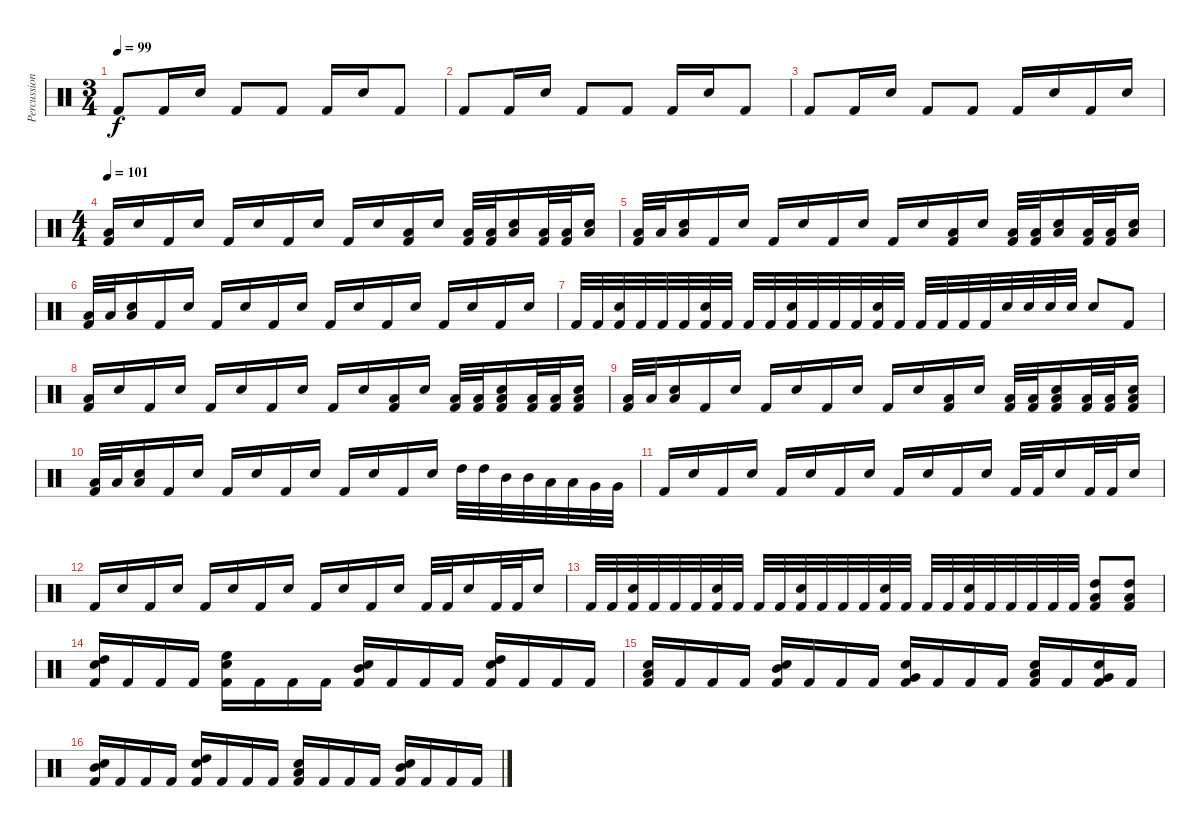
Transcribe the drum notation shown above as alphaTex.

\track ("Percussion" "Percussion") {instrument percussion}
\staff {score}
\articulation defaults
\ts (3 4)
\tempo 99
\clef neutral
\ks c "Kick (hit) 2".8{dy f} "Kick (hit) 2".16 "Snare (hit) 2".16 "Kick (hit) 2".8 "Kick (hit) 2".8 "Kick (hit) 2".16 "Snare (hit) 2".16 "Kick (hit) 2".8
|
"Kick (hit) 2".8 "Kick (hit) 2".16 "Snare (hit) 2".16 "Kick (hit) 2".8 "Kick (hit) 2".8 "Kick (hit) 2".16 "Snare (hit) 2".16 "Kick (hit) 2".8 |
"Kick (hit) 2".8 "Kick (hit) 2".16 "Snare (hit) 2".16 "Kick (hit) 2".8 "Kick (hit) 2".8 "Kick (hit) 2".16 "Snare (hit) 2".16 "Kick (hit) 2".16 "Snare (hit) 2".16 |
\ts (4 4)
\tempo 101
("Low Tom (hit)" "Kick (hit) 2").16 "Snare (hit) 2".16 "Kick (hit) 2".16 "Snare (hit) 2".16 "Kick (hit) 2".16 "Snare (hit) 2".16 "Kick (hit) 2".16 "Snare (hit) 2".16 "Kick (hit) 2".16 "Snare (hit) 2".16 ("Low Tom (hit)" "Kick (hit) 2").16 "Snare (hit) 2".16 ("Low Tom (hit)" "Kick (hit) 2").32 ("Low Tom (hit)" "Kick (hit) 2").32 ("Low Tom (hit)" "Snare (hit) 2").16 ("Low Tom (hit)" "Kick (hit) 2").32 ("Low Tom (hit)" "Kick (hit) 2").32 ("Low Tom (hit)" "Snare (hit) 2").16 |
("Low Tom (hit)" "Kick (hit) 2").32 "Low Tom (hit)".32 ("Low Tom (hit)" "Snare (hit) 2").16 "Kick (hit) 2".16 "Snare (hit) 2".16 "Kick (hit) 2".16 "Snare (hit) 2".16 "Kick (hit) 2".16 "Snare (hit) 2".16 "Kick (hit) 2".16 "Snare (hit) 2".16 ("Low Tom (hit)" "Kick (hit) 2").16 "Snare (hit) 2".16 ("Low Tom (hit)" "Kick (hit) 2").32 ("Low Tom (hit)" "Kick (hit) 2").32 ("Low Tom (hit)" "Snare (hit) 2").16 ("Low Tom (hit)" "Kick (hit) 2").32 ("Low Tom (hit)" "Kick (hit) 2").32 ("Low Tom (hit)" "Snare (hit) 2").16 |
("Low Tom (hit)" "Kick (hit) 2").32 "Low Tom (hit)".32 ("Low Tom (hit)" "Snare (hit) 2").16 "Kick (hit) 2".16 "Snare (hit) 2".16 "Kick (hit) 2".16 "Snare (hit) 2".16 "Kick (hit) 2".16 "Snare (hit) 2".16 "Kick (hit) 2".16 "Snare (hit) 2".16 "Kick (hit) 2".16 "Snare (hit) 2".16 "Kick (hit) 2".16 "Snare (hit) 2".16 "Kick (hit) 2".16 "Snare (hit) 2".16 |
"Kick (hit) 2".32 "Kick (hit) 2".32 ("Snare (hit) 2" "Kick (hit) 2").32 "Kick (hit) 2".32 "Kick (hit) 2".32 "Kick (hit) 2".32 ("Snare (hit) 2" "Kick (hit) 2").32 "Kick (hit) 2".32 "Kick (hit) 2".32 "Kick (hit) 2".32 ("Snare (hit) 2" "Kick (hit) 2").32 "Kick (hit) 2".32 "Kick (hit) 2".32 "Kick (hit) 2".32 ("Snare (hit) 2" "Kick (hit) 2").32 "Kick (hit) 2".32 "Kick (hit) 2".32 "Kick (hit) 2".32 "Kick (hit) 2".32 "Kick (hit) 2".32 "Snare (hit) 2".32 "Snare (hit) 2".32 "Snare (hit) 2".32 "Snare (hit) 2".32 "Snare (hit) 2".8 "Kick (hit) 2".8 |
("Low Tom (hit)" "Kick (hit) 2").16 "Snare (hit) 2".16 "Kick (hit) 2".16 "Snare (hit) 2".16 "Kick (hit) 2".16 "Snare (hit) 2".16 "Kick (hit) 2".16 "Snare (hit) 2".16 "Kick (hit) 2".16 "Snare (hit) 2".16 ("Low Tom (hit)" "Kick (hit) 2").16 "Snare (hit) 2".16 ("Low Tom (hit)" "Kick (hit) 2").32 ("Low Tom (hit)" "Kick (hit) 2").32 ("Low Tom (hit)" "Snare (hit) 2" "Kick (hit) 2").16 ("Low Tom (hit)" "Kick (hit) 2").32 ("Low Tom (hit)" "Kick (hit) 2").32 ("Low Tom (hit)" "Snare (hit) 2" "Kick (hit) 2").16 |
("Low Tom (hit)" "Kick (hit) 2").32 "Low Tom (hit)".32 ("Low Tom (hit)" "Snare (hit) 2").16 "Kick (hit) 2".16 "Snare (hit) 2".16 "Kick (hit) 2".16 "Snare (hit) 2".16 "Kick (hit) 2".16 "Snare (hit) 2".16 "Kick (hit) 2".16 "Snare (hit) 2".16 ("Low Tom (hit)" "Kick (hit) 2").16 "Snare (hit) 2".16 ("Low Tom (hit)" "Kick (hit) 2").32 ("Low Tom (hit)" "Kick (hit) 2").32 ("Low Tom (hit)" "Snare (hit) 2" "Kick (hit) 2").16 ("Low Tom (hit)" "Kick (hit) 2").32 ("Low Tom (hit)" "Kick (hit) 2").32 ("Low Tom (hit)" "Snare (hit) 2" "Kick (hit) 2").16 |
("Low Tom (hit)" "Kick (hit) 2").32 "Low Tom (hit)".32 ("Low Tom (hit)" "Snare (hit) 2").16 "Kick (hit) 2".16 "Snare (hit) 2".16 "Kick (hit) 2".16 "Snare (hit) 2".16 "Kick (hit) 2".16 "Snare (hit) 2".16 "Kick (hit) 2".16 "Snare (hit) 2".16 "Kick (hit) 2".16 "Snare (hit) 2".16 "High Tom (hit)".32 "High Tom (hit)".32 "Mid Tom (hit)".32 "Mid Tom (hit)".32 "Low Tom (hit)".32 "Low Tom (hit)".32 "Very Low Tom (hit)".32 "Very Low Tom (hit)".32 |
"Kick (hit) 2".16 "Snare (hit) 2".16 "Kick (hit) 2".16 "Snare (hit) 2".16 "Kick (hit) 2".16 "Snare (hit) 2".16 "Kick (hit) 2".16 "Snare (hit) 2".16 "Kick (hit) 2".16 "Snare (hit) 2".16 "Kick (hit) 2".16 "Snare (hit) 2".16 "Kick (hit) 2".32 "Kick (hit) 2".32 "Snare (hit) 2".16 "Kick (hit) 2".32 "Kick (hit) 2".32 "Snare (hit) 2".16 |
"Kick (hit) 2".16 "Snare (hit) 2".16 "Kick (hit) 2".16 "Snare (hit) 2".16 "Kick (hit) 2".16 "Snare (hit) 2".16 "Kick (hit) 2".16 "Snare (hit) 2".16 "Kick (hit) 2".16 "Snare (hit) 2".16 "Kick (hit) 2".16 "Snare (hit) 2".16 "Kick (hit) 2".32 "Kick (hit) 2".32 "Snare (hit) 2".16 "Kick (hit) 2".32 "Kick (hit) 2".32 "Snare (hit) 2".16 |
"Kick (hit) 2".32 "Kick (hit) 2".32 ("Snare (hit) 2" "Kick (hit) 2").32 "Kick (hit) 2".32 "Kick (hit) 2".32 "Kick (hit) 2".32 ("Snare (hit) 2" "Kick (hit) 2").32 "Kick (hit) 2".32 "Kick (hit) 2".32 "Kick (hit) 2".32 ("Snare (hit) 2" "Kick (hit) 2").32 "Kick (hit) 2".32 "Kick (hit) 2".32 "Kick (hit) 2".32 ("Snare (hit) 2" "Kick (hit) 2").32 "Kick (hit) 2".32 "Kick (hit) 2".32 "Kick (hit) 2".32 ("Snare (hit) 2" "Kick (hit) 2").32 "Kick (hit) 2".32 "Kick (hit) 2".32 "Kick (hit) 2".32 "Kick (hit) 2".32 "Kick (hit) 2".32 ("Low Tom (hit)" "High Tom (hit)" "Kick (hit) 2").8 ("Low Tom (hit)" "High Tom (hit)" "Kick (hit) 2").8 |
("High Tom (hit)" "Snare (hit) 2" "Kick (hit) 2").16 "Kick (hit) 2".16 "Kick (hit) 2".16 "Kick (hit) 2".16 ("High Floor Tom (hit)" "Snare (hit) 2" "Kick (hit) 2").16 "Kick (hit) 2".16 "Kick (hit) 2".16 "Kick (hit) 2".16 ("Mid Tom (hit)" "Snare (hit) 2" "Kick (hit) 2").16 "Kick (hit) 2".16 "Kick (hit) 2".16 "Kick (hit) 2".16 ("High Tom (hit)" "Snare (hit) 2" "Kick (hit) 2").16 "Kick (hit) 2".16 "Kick (hit) 2".16 "Kick (hit) 2".16 |
("Low Tom (hit)" "Snare (hit) 2" "Kick (hit) 2").16 "Kick (hit) 2".16 "Kick (hit) 2".16 "Kick (hit) 2".16 ("Mid Tom (hit)" "Snare (hit) 2" "Kick (hit) 2").16 "Kick (hit) 2".16 "Kick (hit) 2".16 "Kick (hit) 2".16 ("Very Low Tom (hit)" "Snare (hit) 2" "Kick (hit) 2").16 "Kick (hit) 2".16 "Kick (hit) 2".16 "Kick (hit) 2".16 ("Low Tom (hit)" "Snare (hit) 2" "Kick (hit) 2").16 "Kick (hit) 2".16 ("Very Low Tom (hit)" "Snare (hit) 2" "Kick (hit) 2").16 "Kick (hit) 2".16 |
("Mid Tom (hit)" "Snare (hit) 2" "Kick (hit) 2").16 "Kick (hit) 2".16 "Kick (hit) 2".16 "Kick (hit) 2".16 ("High Tom (hit)" "Snare (hit) 2" "Kick (hit) 2").16 "Kick (hit) 2".16 "Kick (hit) 2".16 "Kick (hit) 2".16 ("Low Tom (hit)" "Snare (hit) 2" "Kick (hit) 2").16 "Kick (hit) 2".16 "Kick (hit) 2".16 "Kick (hit) 2".16 ("Mid Tom (hit)" "Snare (hit) 2" "Kick (hit) 2").16 "Kick (hit) 2".16 "Kick (hit) 2".16 "Kick (hit) 2".16
